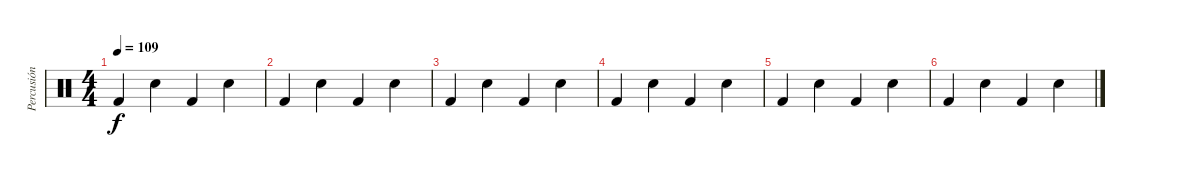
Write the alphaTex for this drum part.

\track ("Percusión" "Percusión") {instrument percussion}
\staff {score}
\articulation defaults
\ts (4 4)
\tempo 109
\clef neutral
\ks c "Kick (hit) 2".4{dy f} "Snare (hit) 2".4 "Kick (hit) 2".4 "Snare (hit) 2".4
|
"Kick (hit) 2".4 "Snare (hit) 2".4 "Kick (hit) 2".4 "Snare (hit) 2".4 |
"Kick (hit) 2".4 "Snare (hit) 2".4 "Kick (hit) 2".4 "Snare (hit) 2".4 |
"Kick (hit) 2".4 "Snare (hit) 2".4 "Kick (hit) 2".4 "Snare (hit) 2".4 |
"Kick (hit) 2".4 "Snare (hit) 2".4 "Kick (hit) 2".4 "Snare (hit) 2".4 |
"Kick (hit) 2".4 "Snare (hit) 2".4 "Kick (hit) 2".4 "Snare (hit) 2".4
